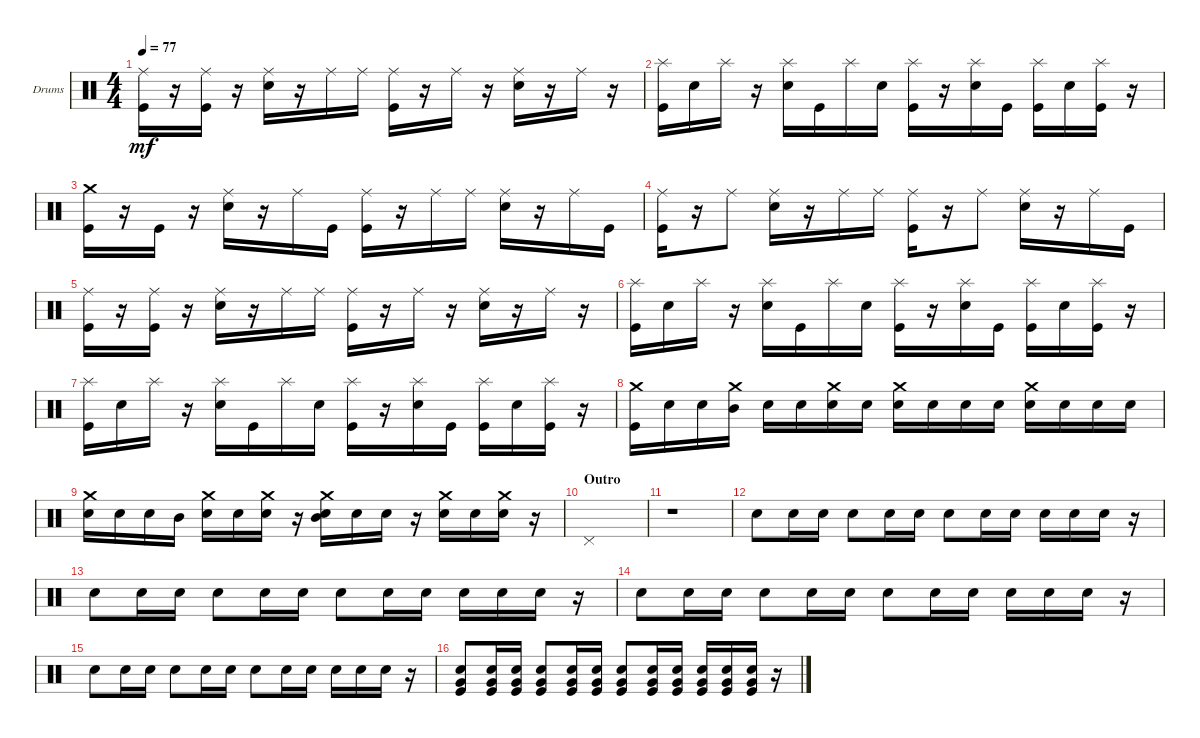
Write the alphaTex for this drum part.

\bracketExtendMode groupsimilarinstruments
\firstSystemTrackNameOrientation horizontal
\otherSystemsTrackNameOrientation horizontal
\track ("Drums" "Drums") {instrument percussion}
\staff {score}
\articulation defaults
\ts (4 4)
\tempo 77
\clef neutral
\ks c
("Ride (middle)" "Kick (hit)").16{dy mf} r.16 ("Ride (middle)" "Kick (hit)").16 r.16 ("Ride (middle)" "Snare (hit) 2").16 r.16 "Ride (middle)".16 "Ride (middle)".16 ("Ride (middle)" "Kick (hit)").16 r.16 "Ride (middle)".16 r.16 ("Ride (middle)" "Snare (hit) 2").16 r.16 "Ride (middle)".16 r.16 |
("Kick (hit)" "Splash (hit)").16 "Snare (hit) 2".16 "Splash (hit)".16 r.16 ("Snare (hit) 2" "Splash (hit)").16 "Kick (hit)".16 "Splash (hit)".16 "Snare (hit) 2".16 ("Kick (hit)" "Splash (hit)").16 r.16 ("Snare (hit) 2" "Splash (hit)").16 "Kick (hit)".16 ("Kick (hit)" "Splash (hit)").16 "Snare (hit) 2".16 ("Kick (hit)" "Splash (hit)").16 r.16 |
("Crash medium (hit)" "Kick (hit)").16 r.16 "Kick (hit)".16 r.16 ("Ride (middle)" "Snare (hit) 2").16 r.16 "Ride (middle)".16 "Kick (hit)".16 ("Kick (hit)" "Ride (middle)").16 r.16 "Ride (middle)".16 "Ride (middle)".16 ("Snare (hit) 2" "Ride (middle)").16 r.16 "Ride (middle)".16 "Kick (hit)".16 |
("Ride (middle)" "Kick (hit)").16 r.16 "Ride (middle)".8 ("Ride (middle)" "Snare (hit) 2").16 r.16 "Ride (middle)".16 "Ride (middle)".16 ("Ride (middle)" "Kick (hit)").16 r.16 "Ride (middle)".8 ("Snare (hit) 2" "Ride (middle)").16 r.16 "Ride (middle)".16 "Kick (hit)".16 |
("Ride (middle)" "Kick (hit)").16 r.16 ("Ride (middle)" "Kick (hit)").16 r.16 ("Ride (middle)" "Snare (hit) 2").16 r.16 "Ride (middle)".16 "Ride (middle)".16 ("Ride (middle)" "Kick (hit)").16 r.16 "Ride (middle)".16 r.16 ("Ride (middle)" "Snare (hit) 2").16 r.16 "Ride (middle)".16 r.16 |
("Kick (hit)" "Splash (hit)").16 "Snare (hit) 2".16 "Splash (hit)".16 r.16 ("Snare (hit) 2" "Splash (hit)").16 "Kick (hit)".16 "Splash (hit)".16 "Snare (hit) 2".16 ("Kick (hit)" "Splash (hit)").16 r.16 ("Snare (hit) 2" "Splash (hit)").16 "Kick (hit)".16 ("Kick (hit)" "Splash (hit)").16 "Snare (hit) 2".16 ("Kick (hit)" "Splash (hit)").16 r.16 |
("Kick (hit)" "Splash (hit)").16 "Snare (hit) 2".16 "Splash (hit)".16 r.16 ("Snare (hit) 2" "Splash (hit)").16 "Kick (hit)".16 "Splash (hit)".16 "Snare (hit) 2".16 ("Kick (hit)" "Splash (hit)").16 r.16 ("Snare (hit) 2" "Splash (hit)").16 "Kick (hit)".16 ("Kick (hit)" "Splash (hit)").16 "Snare (hit) 2".16 ("Kick (hit)" "Splash (hit)").16 r.16 |
("Kick (hit)" "Crash medium (hit)").16 "Snare (hit) 2".16 "Snare (hit) 2".16 ("Mid Tom (hit)" "Crash medium (hit)").16 "Snare (hit) 2".16 "Snare (hit) 2".16 ("Crash medium (hit)" "Snare (hit) 2").16 "Snare (hit) 2".16 ("Crash medium (hit)" "Snare (hit) 2").16 "Snare (hit) 2".16 "Snare (hit) 2".16 "Snare (hit) 2".16 ("Crash medium (hit)" "Snare (hit) 2").16 "Snare (hit) 2".16 "Snare (hit) 2".16 "Snare (hit) 2".16 |
("Crash medium (hit)" "Snare (hit) 2").16 "Snare (hit) 2".16 "Snare (hit) 2".16 "Mid Tom (hit)".16 ("Crash medium (hit)" "Snare (hit) 2").16 "Snare (hit) 2".16 ("Crash medium (hit)" "Snare (hit) 2").16 r.16 ("Mid Tom (hit)" "Crash medium (hit)" "Snare (hit) 2").16 "Snare (hit) 2".16 "Snare (hit) 2".16 r.16 ("Crash medium (hit)" "Snare (hit) 2").16 "Snare (hit) 2".16 ("Snare (hit) 2" "Crash medium (hit)").16 r.16 |
\section ("" "Outro")
"Pedal Hi-Hat (hit)".1 |
r.1 |
"Snare (hit) 2".8 "Snare (hit) 2".16 "Snare (hit) 2".16 "Snare (hit) 2".8 "Snare (hit) 2".16 "Snare (hit) 2".16 "Snare (hit) 2".8 "Snare (hit) 2".16 "Snare (hit) 2".16 "Snare (hit) 2".16 "Snare (hit) 2".16 "Snare (hit) 2".16 r.16 |
"Snare (hit) 2".8 "Snare (hit) 2".16 "Snare (hit) 2".16 "Snare (hit) 2".8 "Snare (hit) 2".16 "Snare (hit) 2".16 "Snare (hit) 2".8 "Snare (hit) 2".16 "Snare (hit) 2".16 "Snare (hit) 2".16 "Snare (hit) 2".16 "Snare (hit) 2".16 r.16 |
"Snare (hit) 2".8 "Snare (hit) 2".16 "Snare (hit) 2".16 "Snare (hit) 2".8 "Snare (hit) 2".16 "Snare (hit) 2".16 "Snare (hit) 2".8 "Snare (hit) 2".16 "Snare (hit) 2".16 "Snare (hit) 2".16 "Snare (hit) 2".16 "Snare (hit) 2".16 r.16 |
"Snare (hit) 2".8 "Snare (hit) 2".16 "Snare (hit) 2".16 "Snare (hit) 2".8 "Snare (hit) 2".16 "Snare (hit) 2".16 "Snare (hit) 2".8 "Snare (hit) 2".16 "Snare (hit) 2".16 "Snare (hit) 2".16 "Snare (hit) 2".16 "Snare (hit) 2".16 r.16 |
("Snare (hit) 2" "Very Low Tom (hit)" "Kick (hit)").8 ("Snare (hit) 2" "Very Low Tom (hit)" "Kick (hit)").16 ("Snare (hit) 2" "Very Low Tom (hit)" "Kick (hit)").16 ("Snare (hit) 2" "Very Low Tom (hit)" "Kick (hit)").8 ("Snare (hit) 2" "Very Low Tom (hit)" "Kick (hit)").16 ("Snare (hit) 2" "Very Low Tom (hit)" "Kick (hit)").16 ("Snare (hit) 2" "Very Low Tom (hit)" "Kick (hit)").8 ("Snare (hit) 2" "Very Low Tom (hit)" "Kick (hit)").16 ("Snare (hit) 2" "Very Low Tom (hit)" "Kick (hit)").16 ("Snare (hit) 2" "Very Low Tom (hit)" "Kick (hit)").16 ("Snare (hit) 2" "Very Low Tom (hit)" "Kick (hit)").16 ("Snare (hit) 2" "Very Low Tom (hit)" "Kick (hit)").16 r.16
